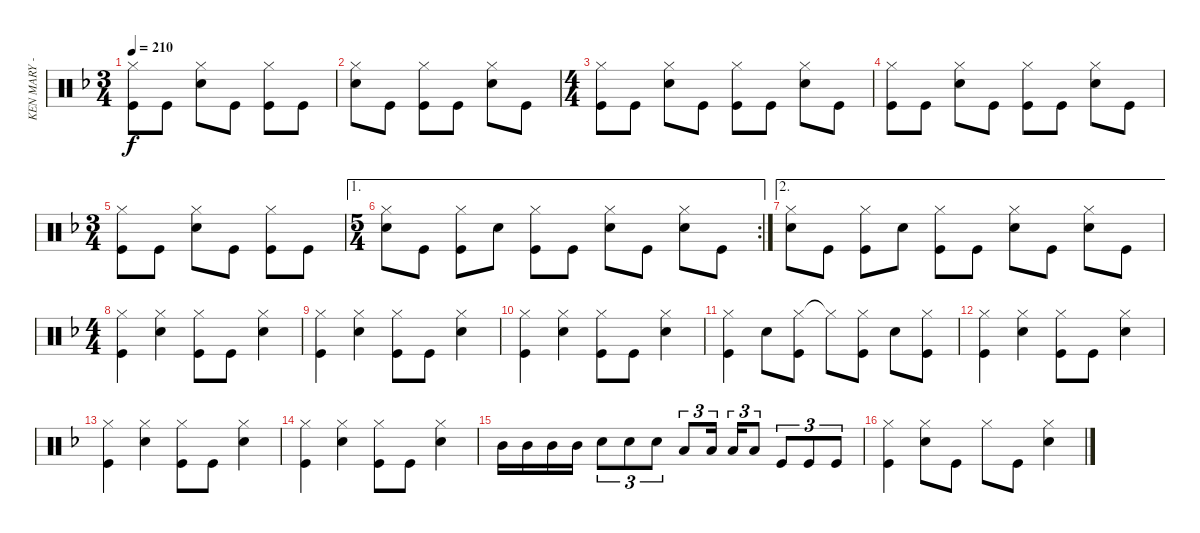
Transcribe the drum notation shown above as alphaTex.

\track ("KEN MARY - DRUMS" "KEN MARY -") {instrument percussion}
\staff {score}
\articulation defaults
\ts (3 4)
\tempo 210
\clef neutral
\ks f
("Hi-Hat (closed)" "Kick (hit)").8{dy f} "Kick (hit)".8 ("Hi-Hat (closed)" "Snare (hit) 2").8 "Kick (hit)".8 ("Hi-Hat (closed)" "Kick (hit)").8 "Kick (hit)".8 |
("Hi-Hat (closed)" "Snare (hit) 2").8 "Kick (hit)".8 ("Hi-Hat (closed)" "Kick (hit)").8 "Kick (hit)".8 ("Hi-Hat (closed)" "Snare (hit) 2").8 "Kick (hit)".8 |
\ts (4 4)
("Hi-Hat (closed)" "Kick (hit)").8 "Kick (hit)".8 ("Hi-Hat (closed)" "Snare (hit) 2").8 "Kick (hit)".8 ("Hi-Hat (closed)" "Kick (hit)").8 "Kick (hit)".8 ("Hi-Hat (closed)" "Snare (hit) 2").8 "Kick (hit)".8 |
("Hi-Hat (closed)" "Kick (hit)").8 "Kick (hit)".8 ("Hi-Hat (closed)" "Snare (hit) 2").8 "Kick (hit)".8 ("Hi-Hat (closed)" "Kick (hit)").8 "Kick (hit)".8 ("Hi-Hat (closed)" "Snare (hit) 2").8 "Kick (hit)".8 |
\ts (3 4)
("Hi-Hat (closed)" "Kick (hit)").8 "Kick (hit)".8 ("Hi-Hat (closed)" "Snare (hit) 2").8 "Kick (hit)".8 ("Hi-Hat (closed)" "Kick (hit)").8 "Kick (hit)".8 |
\ae 1
\rc 2
\ts (5 4)
("Hi-Hat (closed)" "Snare (hit) 2").8 "Kick (hit)".8 ("Hi-Hat (closed)" "Kick (hit)").8 "Snare (hit) 2".8 ("Hi-Hat (closed)" "Kick (hit)").8 "Kick (hit)".8 ("Hi-Hat (closed)" "Snare (hit) 2").8 "Kick (hit)".8 ("Hi-Hat (closed)" "Snare (hit) 2").8 "Kick (hit)".8 |
\ae 2
("Hi-Hat (closed)" "Snare (hit) 2").8 "Kick (hit)".8 ("Hi-Hat (closed)" "Kick (hit)").8 "Snare (hit) 2".8 ("Hi-Hat (closed)" "Kick (hit)").8 "Kick (hit)".8 ("Hi-Hat (closed)" "Snare (hit) 2").8 "Kick (hit)".8 ("Hi-Hat (closed)" "Snare (hit) 2").8 "Kick (hit)".8 |
\ts (4 4)
("Hi-Hat (closed)" "Kick (hit)").4 ("Hi-Hat (closed)" "Snare (hit) 2").4 ("Hi-Hat (closed)" "Kick (hit)").8 "Kick (hit)".8 ("Hi-Hat (closed)" "Snare (hit) 2").4 |
("Hi-Hat (closed)" "Kick (hit)").4 ("Hi-Hat (closed)" "Snare (hit) 2").4 ("Hi-Hat (closed)" "Kick (hit)").8 "Kick (hit)".8 ("Hi-Hat (closed)" "Snare (hit) 2").4 |
("Hi-Hat (closed)" "Kick (hit)").4 ("Hi-Hat (closed)" "Snare (hit) 2").4 ("Hi-Hat (closed)" "Kick (hit)").8 "Kick (hit)".8 ("Hi-Hat (closed)" "Snare (hit) 2").4 |
("Hi-Hat (closed)" "Kick (hit)").4 "Snare (hit) 2".8 ("Hi-Hat (closed)" "Kick (hit)").8 "Hi-Hat (closed)"{t}.8 ("Hi-Hat (closed)" "Kick (hit)").8 "Snare (hit) 2".8 ("Hi-Hat (closed)" "Kick (hit)").8 |
("Hi-Hat (closed)" "Kick (hit)").4 ("Hi-Hat (closed)" "Snare (hit) 2").4 ("Hi-Hat (closed)" "Kick (hit)").8 "Kick (hit)".8 ("Hi-Hat (closed)" "Snare (hit) 2").4 |
("Hi-Hat (closed)" "Kick (hit)").4 ("Hi-Hat (closed)" "Snare (hit) 2").4 ("Hi-Hat (closed)" "Kick (hit)").8 "Kick (hit)".8 ("Hi-Hat (closed)" "Snare (hit) 2").4 |
("Hi-Hat (closed)" "Kick (hit)").4 ("Hi-Hat (closed)" "Snare (hit) 2").4 ("Hi-Hat (closed)" "Kick (hit)").8 "Kick (hit)".8 ("Hi-Hat (closed)" "Snare (hit) 2").4 |
"Mid Tom (hit)".16 "Mid Tom (hit)".16 "Mid Tom (hit)".16 "Mid Tom (hit)".16 "Snare (hit) 2".8{tu (3 2)} "Snare (hit) 2".8{tu (3 2)} "Snare (hit) 2".8{tu (3 2)} "Low Tom (hit)".8{tu (3 2)} "Low Tom (hit)".16{tu (3 2) beam splitsecondary} "Low Tom (hit)".16{tu (3 2)} "Low Tom (hit)".8{tu (3 2)} "Kick (hit)".8{tu (3 2)} "Kick (hit)".8{tu (3 2)} "Kick (hit)".8{tu (3 2)} |
("Hi-Hat (closed)" "Kick (hit)").4 ("Hi-Hat (closed)" "Snare (hit) 2").8 "Kick (hit)".8 "Hi-Hat (closed)".8 "Kick (hit)".8 ("Hi-Hat (closed)" "Snare (hit) 2").4
